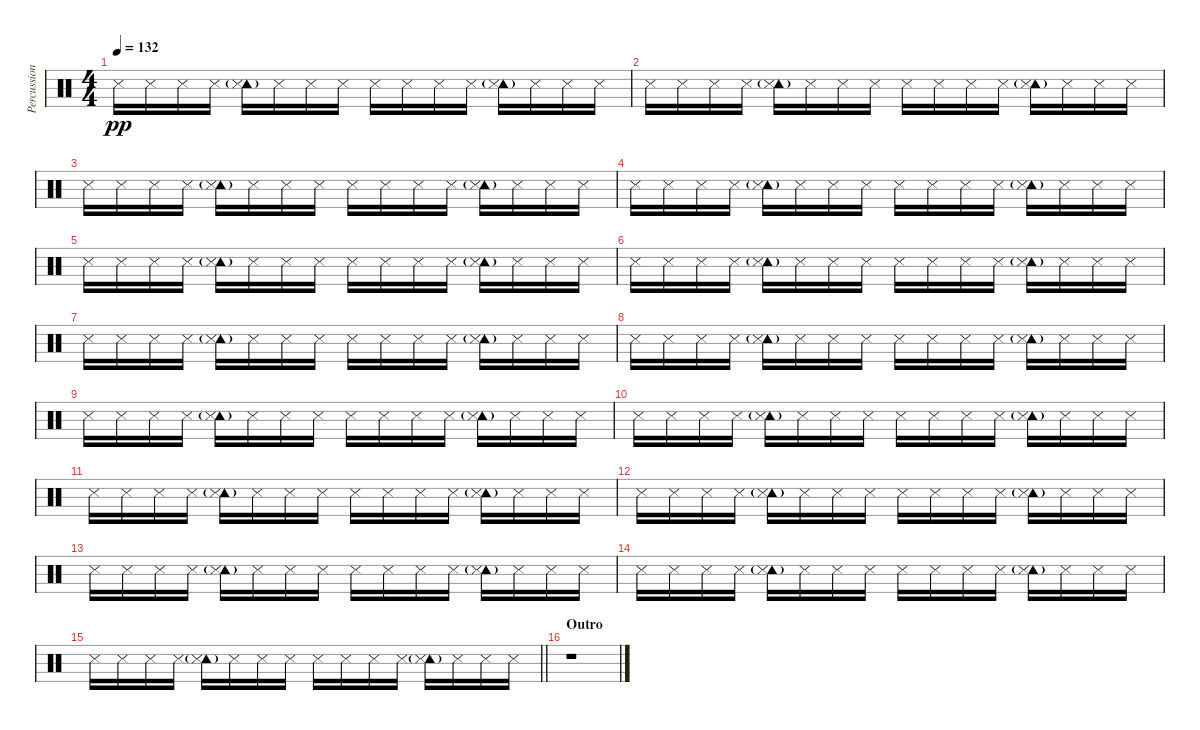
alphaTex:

\track ("Percussion" "Percussion") {instrument percussion}
\staff {score}
\articulation defaults
\ts (4 4)
\tempo 132
\clef neutral
\ks c "Snare (side stick) 3".16{dy pp} "Snare (side stick) 3".16 "Snare (side stick) 3".16 "Snare (side stick) 3".16
("Tambourine (hit)"{g} "Snare (side stick) 3").16 "Snare (side stick) 3".16 "Snare (side stick) 3".16 "Snare (side stick) 3".16 "Snare (side stick) 3".16 "Snare (side stick) 3".16 "Snare (side stick) 3".16 "Snare (side stick) 3".16 ("Tambourine (hit)"{g} "Snare (side stick) 3").16 "Snare (side stick) 3".16 "Snare (side stick) 3".16 "Snare (side stick) 3".16 |
"Snare (side stick) 3".16 "Snare (side stick) 3".16 "Snare (side stick) 3".16 "Snare (side stick) 3".16 ("Tambourine (hit)"{g} "Snare (side stick) 3").16 "Snare (side stick) 3".16 "Snare (side stick) 3".16 "Snare (side stick) 3".16 "Snare (side stick) 3".16 "Snare (side stick) 3".16 "Snare (side stick) 3".16 "Snare (side stick) 3".16 ("Tambourine (hit)"{g} "Snare (side stick) 3").16 "Snare (side stick) 3".16 "Snare (side stick) 3".16 "Snare (side stick) 3".16 |
"Snare (side stick) 3".16 "Snare (side stick) 3".16 "Snare (side stick) 3".16 "Snare (side stick) 3".16 ("Tambourine (hit)"{g} "Snare (side stick) 3").16 "Snare (side stick) 3".16 "Snare (side stick) 3".16 "Snare (side stick) 3".16 "Snare (side stick) 3".16 "Snare (side stick) 3".16 "Snare (side stick) 3".16 "Snare (side stick) 3".16 ("Tambourine (hit)"{g} "Snare (side stick) 3").16 "Snare (side stick) 3".16 "Snare (side stick) 3".16 "Snare (side stick) 3".16 |
"Snare (side stick) 3".16 "Snare (side stick) 3".16 "Snare (side stick) 3".16 "Snare (side stick) 3".16 ("Tambourine (hit)"{g} "Snare (side stick) 3").16 "Snare (side stick) 3".16 "Snare (side stick) 3".16 "Snare (side stick) 3".16 "Snare (side stick) 3".16 "Snare (side stick) 3".16 "Snare (side stick) 3".16 "Snare (side stick) 3".16 ("Tambourine (hit)"{g} "Snare (side stick) 3").16 "Snare (side stick) 3".16 "Snare (side stick) 3".16 "Snare (side stick) 3".16 |
"Snare (side stick) 3".16 "Snare (side stick) 3".16 "Snare (side stick) 3".16 "Snare (side stick) 3".16 ("Tambourine (hit)"{g} "Snare (side stick) 3").16 "Snare (side stick) 3".16 "Snare (side stick) 3".16 "Snare (side stick) 3".16 "Snare (side stick) 3".16 "Snare (side stick) 3".16 "Snare (side stick) 3".16 "Snare (side stick) 3".16 ("Tambourine (hit)"{g} "Snare (side stick) 3").16 "Snare (side stick) 3".16 "Snare (side stick) 3".16 "Snare (side stick) 3".16 |
"Snare (side stick) 3".16 "Snare (side stick) 3".16 "Snare (side stick) 3".16 "Snare (side stick) 3".16 ("Tambourine (hit)"{g} "Snare (side stick) 3").16 "Snare (side stick) 3".16 "Snare (side stick) 3".16 "Snare (side stick) 3".16 "Snare (side stick) 3".16 "Snare (side stick) 3".16 "Snare (side stick) 3".16 "Snare (side stick) 3".16 ("Tambourine (hit)"{g} "Snare (side stick) 3").16 "Snare (side stick) 3".16 "Snare (side stick) 3".16 "Snare (side stick) 3".16 |
"Snare (side stick) 3".16 "Snare (side stick) 3".16 "Snare (side stick) 3".16 "Snare (side stick) 3".16 ("Tambourine (hit)"{g} "Snare (side stick) 3").16 "Snare (side stick) 3".16 "Snare (side stick) 3".16 "Snare (side stick) 3".16 "Snare (side stick) 3".16 "Snare (side stick) 3".16 "Snare (side stick) 3".16 "Snare (side stick) 3".16 ("Tambourine (hit)"{g} "Snare (side stick) 3").16 "Snare (side stick) 3".16 "Snare (side stick) 3".16 "Snare (side stick) 3".16 |
"Snare (side stick) 3".16 "Snare (side stick) 3".16 "Snare (side stick) 3".16 "Snare (side stick) 3".16 ("Tambourine (hit)"{g} "Snare (side stick) 3").16 "Snare (side stick) 3".16 "Snare (side stick) 3".16 "Snare (side stick) 3".16 "Snare (side stick) 3".16 "Snare (side stick) 3".16 "Snare (side stick) 3".16 "Snare (side stick) 3".16 ("Tambourine (hit)"{g} "Snare (side stick) 3").16 "Snare (side stick) 3".16 "Snare (side stick) 3".16 "Snare (side stick) 3".16 |
"Snare (side stick) 3".16 "Snare (side stick) 3".16 "Snare (side stick) 3".16 "Snare (side stick) 3".16 ("Tambourine (hit)"{g} "Snare (side stick) 3").16 "Snare (side stick) 3".16 "Snare (side stick) 3".16 "Snare (side stick) 3".16 "Snare (side stick) 3".16 "Snare (side stick) 3".16 "Snare (side stick) 3".16 "Snare (side stick) 3".16 ("Tambourine (hit)"{g} "Snare (side stick) 3").16 "Snare (side stick) 3".16 "Snare (side stick) 3".16 "Snare (side stick) 3".16 |
"Snare (side stick) 3".16 "Snare (side stick) 3".16 "Snare (side stick) 3".16 "Snare (side stick) 3".16 ("Tambourine (hit)"{g} "Snare (side stick) 3").16 "Snare (side stick) 3".16 "Snare (side stick) 3".16 "Snare (side stick) 3".16 "Snare (side stick) 3".16 "Snare (side stick) 3".16 "Snare (side stick) 3".16 "Snare (side stick) 3".16 ("Tambourine (hit)"{g} "Snare (side stick) 3").16 "Snare (side stick) 3".16 "Snare (side stick) 3".16 "Snare (side stick) 3".16 |
"Snare (side stick) 3".16 "Snare (side stick) 3".16 "Snare (side stick) 3".16 "Snare (side stick) 3".16 ("Tambourine (hit)"{g} "Snare (side stick) 3").16 "Snare (side stick) 3".16 "Snare (side stick) 3".16 "Snare (side stick) 3".16 "Snare (side stick) 3".16 "Snare (side stick) 3".16 "Snare (side stick) 3".16 "Snare (side stick) 3".16 ("Tambourine (hit)"{g} "Snare (side stick) 3").16 "Snare (side stick) 3".16 "Snare (side stick) 3".16 "Snare (side stick) 3".16 |
"Snare (side stick) 3".16 "Snare (side stick) 3".16 "Snare (side stick) 3".16 "Snare (side stick) 3".16 ("Tambourine (hit)"{g} "Snare (side stick) 3").16 "Snare (side stick) 3".16 "Snare (side stick) 3".16 "Snare (side stick) 3".16 "Snare (side stick) 3".16 "Snare (side stick) 3".16 "Snare (side stick) 3".16 "Snare (side stick) 3".16 ("Tambourine (hit)"{g} "Snare (side stick) 3").16 "Snare (side stick) 3".16 "Snare (side stick) 3".16 "Snare (side stick) 3".16 |
"Snare (side stick) 3".16 "Snare (side stick) 3".16 "Snare (side stick) 3".16 "Snare (side stick) 3".16 ("Tambourine (hit)"{g} "Snare (side stick) 3").16 "Snare (side stick) 3".16 "Snare (side stick) 3".16 "Snare (side stick) 3".16 "Snare (side stick) 3".16 "Snare (side stick) 3".16 "Snare (side stick) 3".16 "Snare (side stick) 3".16 ("Tambourine (hit)"{g} "Snare (side stick) 3").16 "Snare (side stick) 3".16 "Snare (side stick) 3".16 "Snare (side stick) 3".16 |
"Snare (side stick) 3".16 "Snare (side stick) 3".16 "Snare (side stick) 3".16 "Snare (side stick) 3".16 ("Tambourine (hit)"{g} "Snare (side stick) 3").16 "Snare (side stick) 3".16 "Snare (side stick) 3".16 "Snare (side stick) 3".16 "Snare (side stick) 3".16 "Snare (side stick) 3".16 "Snare (side stick) 3".16 "Snare (side stick) 3".16 ("Tambourine (hit)"{g} "Snare (side stick) 3").16 "Snare (side stick) 3".16 "Snare (side stick) 3".16 "Snare (side stick) 3".16 |
\barLineRight lightlight "Snare (side stick) 3".16 "Snare (side stick) 3".16 "Snare (side stick) 3".16 "Snare (side stick) 3".16
("Tambourine (hit)"{g} "Snare (side stick) 3").16 "Snare (side stick) 3".16 "Snare (side stick) 3".16 "Snare (side stick) 3".16 "Snare (side stick) 3".16 "Snare (side stick) 3".16 "Snare (side stick) 3".16 "Snare (side stick) 3".16 ("Tambourine (hit)"{g} "Snare (side stick) 3").16 "Snare (side stick) 3".16 "Snare (side stick) 3".16 "Snare (side stick) 3".16 |
\section ("" "Outro")
r.1
